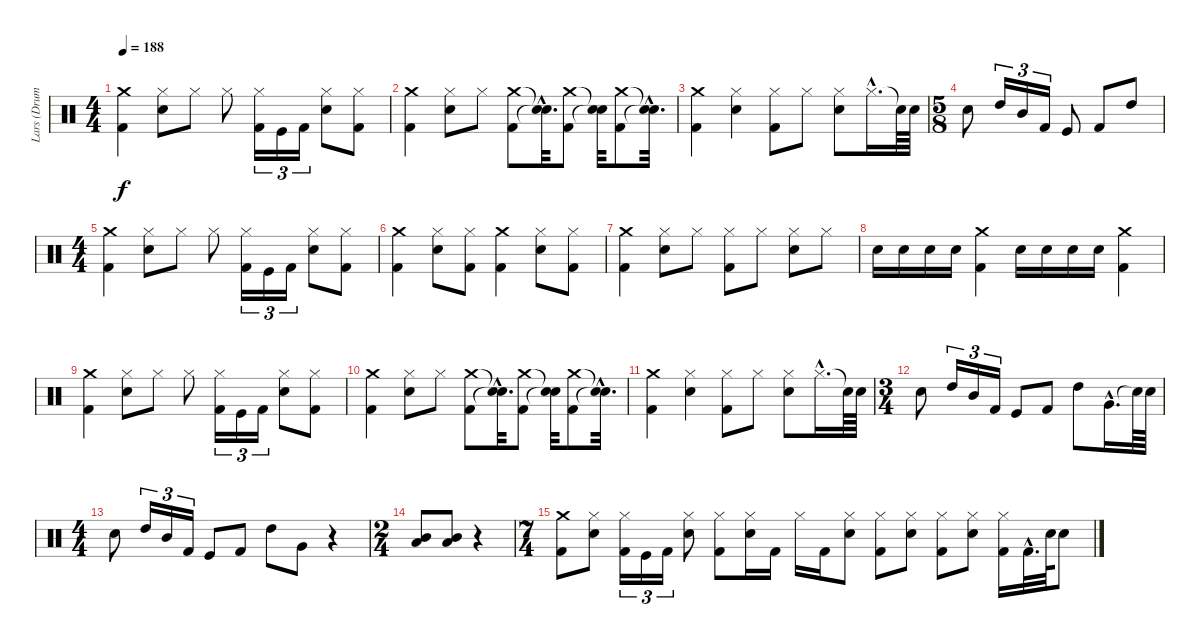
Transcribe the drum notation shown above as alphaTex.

\track ("Lars (Drums)" "Lars (Drum") {instrument percussion}
\staff {score}
\articulation defaults
\ts (4 4)
\tempo 188
\clef neutral
\ks c
("Kick (hit) 2" "Crash medium (hit)").4{dy f} ("Snare (hit) 2" "Hi-Hat (closed)").8 "Hi-Hat (closed)".8 "Hi-Hat (closed)".8 ("Kick (hit) 2" "Hi-Hat (closed)").16{tu (3 2)} "Kick (hit)".16{tu (3 2)} "Kick (hit) 2".16{tu (3 2)} ("Snare (hit) 2" "Hi-Hat (closed)").8 ("Kick (hit) 2" "Hi-Hat (closed)").8 |
("Kick (hit) 2" "Crash medium (hit)").4 ("Hi-Hat (closed)" "Snare (hit) 2").8 "Hi-Hat (closed)".8 ("Kick (hit) 2" "Crash medium (hit)").8 ("Snare (hit)"{hac t} "Snare (hit)"{hac t}).32{d} ("Kick (hit) 2" "Crash medium (hit)").8 ("Snare (hit)"{t} "Snare (hit)"{t}).32 ("Kick (hit) 2" "Crash medium (hit)").8 ("Snare (hit)"{hac t} "Snare (hit)"{hac t}).32{d} |
("Kick (hit) 2" "Crash medium (hit)").4 ("Hi-Hat (closed)" "Snare (hit) 2").4 ("Hi-Hat (closed)" "Kick (hit) 2").8 "Hi-Hat (closed)".8 ("Snare (hit) 2" "Hi-Hat (closed)").8 "Hi-Hat (closed)"{hac}.16{d} "Snare (hit)"{t}.64 "Snare (hit) 2".64 |
\ts (5 8)
"Snare (hit) 2".8 "High Tom (hit)".16{tu (3 2)} "Mid Tom (hit)".16{tu (3 2)} "Kick (hit) 2".16{tu (3 2)} "Kick (hit)".8 "Kick (hit) 2".8 "High Tom (hit)".8 |
\ts (4 4)
("Kick (hit) 2" "Crash medium (hit)").4 ("Snare (hit) 2" "Hi-Hat (closed)").8 "Hi-Hat (closed)".8 "Hi-Hat (closed)".8 ("Kick (hit) 2" "Hi-Hat (closed)").16{tu (3 2)} "Kick (hit)".16{tu (3 2)} "Kick (hit) 2".16{tu (3 2)} ("Snare (hit) 2" "Hi-Hat (closed)").8 ("Kick (hit) 2" "Hi-Hat (closed)").8 |
("Kick (hit) 2" "Crash medium (hit)").4 ("Hi-Hat (closed)" "Snare (hit) 2").8 ("Kick (hit) 2" "Hi-Hat (closed)").8 ("Crash medium (hit)" "Kick (hit) 2").4 ("Hi-Hat (closed)" "Snare (hit) 2").8 ("Kick (hit) 2" "Hi-Hat (closed)").8 |
("Kick (hit) 2" "Crash medium (hit)").4 ("Hi-Hat (closed)" "Snare (hit) 2").8 "Hi-Hat (closed)".8 ("Hi-Hat (closed)" "Kick (hit) 2").8 "Hi-Hat (closed)".8 ("Snare (hit) 2" "Hi-Hat (closed)").8 "Hi-Hat (closed)".8 |
"Snare (hit) 2".16 "Snare (hit) 2".16 "Snare (hit) 2".16 "Snare (hit) 2".16 ("Kick (hit) 2" "Crash medium (hit)").4 "Snare (hit) 2".16 "Snare (hit) 2".16 "Snare (hit) 2".16 "Snare (hit) 2".16 ("Kick (hit) 2" "Crash medium (hit)").4 |
("Kick (hit) 2" "Crash medium (hit)").4 ("Snare (hit) 2" "Hi-Hat (closed)").8 "Hi-Hat (closed)".8 "Hi-Hat (closed)".8 ("Kick (hit) 2" "Hi-Hat (closed)").16{tu (3 2)} "Kick (hit)".16{tu (3 2)} "Kick (hit) 2".16{tu (3 2)} ("Snare (hit) 2" "Hi-Hat (closed)").8 ("Kick (hit) 2" "Hi-Hat (closed)").8 |
("Kick (hit) 2" "Crash medium (hit)").4 ("Hi-Hat (closed)" "Snare (hit) 2").8 "Hi-Hat (closed)".8 ("Kick (hit) 2" "Crash medium (hit)").8 ("Snare (hit)"{hac t} "Snare (hit)"{hac t}).32{d} ("Kick (hit) 2" "Crash medium (hit)").8 ("Snare (hit)"{t} "Snare (hit)"{t}).32 ("Kick (hit) 2" "Crash medium (hit)").8 ("Snare (hit)"{hac t} "Snare (hit)"{hac t}).32{d} |
("Kick (hit) 2" "Crash medium (hit)").4 ("Hi-Hat (closed)" "Snare (hit) 2").4 ("Hi-Hat (closed)" "Kick (hit) 2").8 "Hi-Hat (closed)".8 ("Snare (hit) 2" "Hi-Hat (closed)").8 "Hi-Hat (closed)"{hac}.16{d} "Snare (hit)"{t}.64 "Snare (hit) 2".64 |
\ts (3 4)
"Snare (hit) 2".8 "High Tom (hit)".16{tu (3 2)} "Mid Tom (hit)".16{tu (3 2)} "Kick (hit) 2".16{tu (3 2)} "Kick (hit)".8 "Kick (hit) 2".8 "High Tom (hit)".8 "Very Low Tom (hit)"{hac}.16{d} "Snare (hit)"{t}.64 "Snare (hit) 2".64 |
\ts (4 4)
"Snare (hit) 2".8 "High Tom (hit)".16{tu (3 2)} "Mid Tom (hit)".16{tu (3 2)} "Kick (hit) 2".16{tu (3 2)} "Kick (hit)".8 "Kick (hit) 2".8 "High Tom (hit)".8 "Very Low Tom (hit)".8 r.4 |
\ts (2 4)
("Mid Tom (hit)" "Low Tom (hit)").8 ("Mid Tom (hit)" "Low Tom (hit)").8 r.4 |
\ts (7 4)
("Crash medium (hit)" "Kick (hit) 2").8 ("Snare (hit) 2" "Hi-Hat (closed)").8 ("Hi-Hat (closed)" "Kick (hit) 2").16{tu (3 2)} "Kick (hit)".16{tu (3 2)} "Kick (hit) 2".16{tu (3 2)} ("Snare (hit) 2" "Hi-Hat (closed)").8 ("Hi-Hat (closed)" "Kick (hit) 2").8 ("Snare (hit) 2" "Hi-Hat (closed)").16 "Kick (hit) 2".16 "Hi-Hat (closed)".16 "Kick (hit) 2".16 ("Snare (hit) 2" "Hi-Hat (closed)").8 ("Hi-Hat (closed)" "Kick (hit) 2").8 ("Snare (hit) 2" "Hi-Hat (closed)").8 ("Hi-Hat (closed)" "Kick (hit) 2").8 ("Snare (hit) 2" "Hi-Hat (closed)").8 ("Hi-Hat (closed)" "Kick (hit) 2").16 "Kick (hit) 2"{hac}.32{d} "Snare (hit) 2".64 "Snare (hit) 2".8
